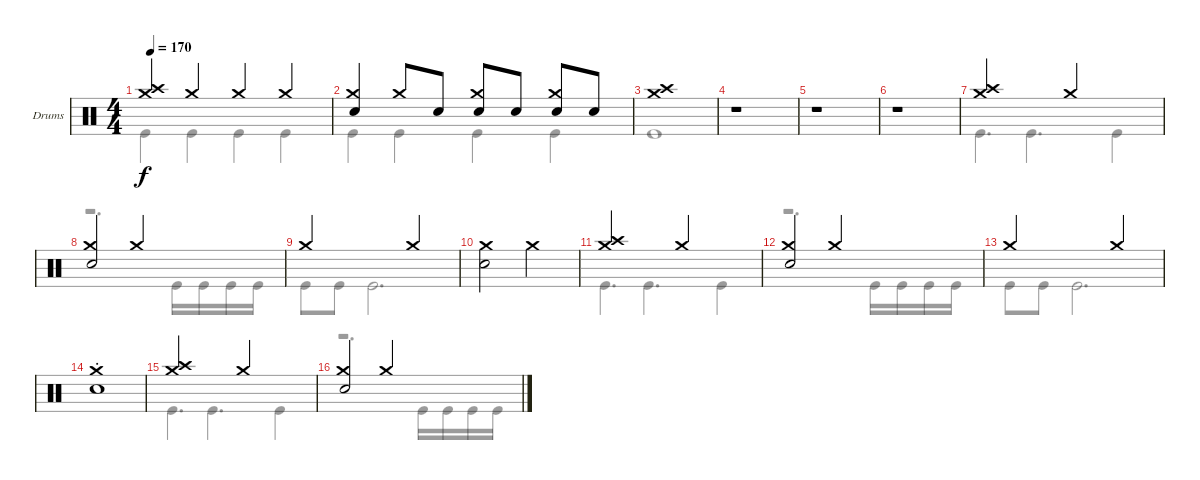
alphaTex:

\defaultSystemsLayout 4
\bracketExtendMode groupsimilarinstruments
\firstSystemTrackNameOrientation horizontal
\otherSystemsTrackNameOrientation horizontal
\track ("Drumkit" "Drums") {instrument percussion}
\staff {score}
\articulation defaults
\voice
\ts (4 4)
\tempo 170
\clef neutral
\ks c
("Crash medium (hit)" "Crash high (hit)").4{dy f} "Crash medium (hit)".4 "Crash medium (hit)".4 "Crash medium (hit)".4 |
("Crash medium (hit)" "Snare (hit) 2").4 "Crash medium (hit)".8 "Snare (hit) 2".8 ("Crash medium (hit)" "Snare (hit) 2").8 "Snare (hit) 2".8 ("Crash medium (hit)" "Snare (hit) 2").8 "Snare (hit) 2".8 |
("Crash medium (hit)" "Crash high (hit)").1 |
r.1 |
r.1 |
r.1 |
("Crash high (hit)" "Crash medium (hit)").2 "Crash medium (hit)".2 |
("Crash medium (hit)" "Snare (hit) 2").2 "Crash medium (hit)".2 |
"Crash medium (hit)".2 "Crash medium (hit)".2 |
("Crash medium (hit)" "Snare (hit) 2").2 "Crash medium (hit)".2 |
("Crash medium (hit)" "Crash high (hit)").2 "Crash medium (hit)".2 |
("Crash medium (hit)" "Snare (hit) 2").2 "Crash medium (hit)".2 |
"Crash medium (hit)".2 "Crash medium (hit)".2 |
("Crash medium (hit)"{st} "Snare (hit) 2").1 |
("Crash high (hit)" "Crash medium (hit)").2 "Crash medium (hit)".2 |
("Crash medium (hit)" "Snare (hit) 2").2 "Crash medium (hit)".2
\voice
\clef neutral
\ottava regular
\simile none
\ks c "Kick (hit)".4{dy f} "Kick (hit)".4 "Kick (hit)".4 "Kick (hit)".4
|
"Kick (hit)".4 "Kick (hit)".4 "Kick (hit)".4 "Kick (hit)".4 |
"Kick (hit)".1 |
|
|
|
"Kick (hit)".4{d} "Kick (hit)".4{d} "Kick (hit)".4 |
r.2{d} "Kick (hit)".16 "Kick (hit)".16 "Kick (hit)".16 "Kick (hit)".16 |
"Kick (hit)".8 "Kick (hit)".8 "Kick (hit)".2{d} |
|
"Kick (hit)".4{d} "Kick (hit)".4{d} "Kick (hit)".4 |
r.2{d} "Kick (hit)".16 "Kick (hit)".16 "Kick (hit)".16 "Kick (hit)".16 |
"Kick (hit)".8 "Kick (hit)".8 "Kick (hit)".2{d} |
|
"Kick (hit)".4{d} "Kick (hit)".4{d} "Kick (hit)".4 |
r.2{d} "Kick (hit)".16 "Kick (hit)".16 "Kick (hit)".16 "Kick (hit)".16
